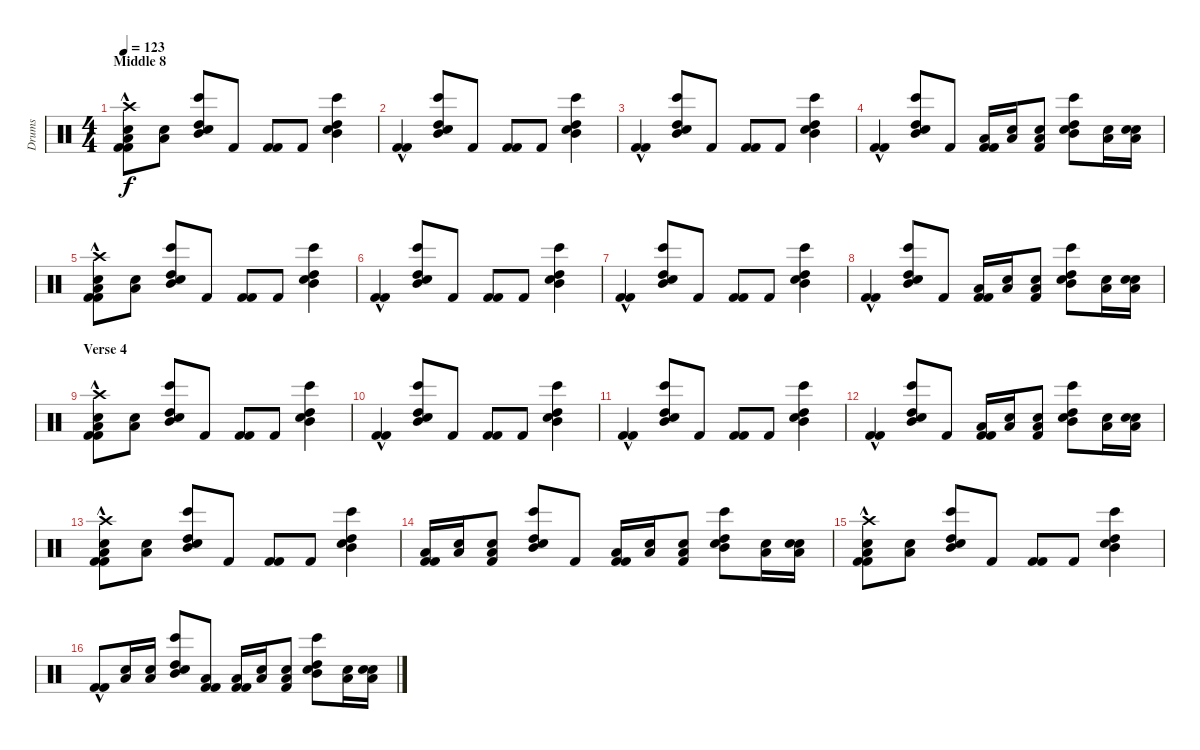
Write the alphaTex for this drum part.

\track ("Drums" "Drums") {instrument percussion}
\staff {score}
\articulation defaults
\ts (4 4)
\section ("" "Middle 8")
\tempo 123
\clef neutral
\ks c
("Crash high (hit)" "Snare (hit) 2" "Low Floor Tom (hit)" "Kick (hit) 2"{hac} "Kick (hit) 2"{hac}).8{dy f} ("Snare (hit) 2" "Low Floor Tom (hit)").8 ("Bongo High (hit)" "High Tom (hit)" "Mid Tom (hit)" "Snare (hit) 2").8 "Kick (hit) 2".8 ("Kick (hit) 2" "Kick (hit) 2").8 "Kick (hit) 2".8 ("Bongo High (hit)" "High Tom (hit)" "Mid Tom (hit)" "Snare (hit) 2").4 |
("Kick (hit) 2"{hac} "Kick (hit) 2"{hac}).4 ("Bongo High (hit)" "High Tom (hit)" "Mid Tom (hit)" "Snare (hit) 2").8 "Kick (hit) 2".8 ("Kick (hit) 2" "Kick (hit) 2").8 "Kick (hit) 2".8 ("Bongo High (hit)" "High Tom (hit)" "Mid Tom (hit)" "Snare (hit) 2").4 |
("Kick (hit) 2"{hac} "Kick (hit) 2"{hac}).4 ("Bongo High (hit)" "High Tom (hit)" "Mid Tom (hit)" "Snare (hit) 2").8 "Kick (hit) 2".8 ("Kick (hit) 2" "Kick (hit) 2").8 "Kick (hit) 2".8 ("Bongo High (hit)" "High Tom (hit)" "Mid Tom (hit)" "Snare (hit) 2").4 |
("Kick (hit) 2"{hac} "Kick (hit) 2"{hac}).4 ("Bongo High (hit)" "High Tom (hit)" "Mid Tom (hit)" "Snare (hit) 2").8 "Kick (hit) 2".8 ("Low Floor Tom (hit)" "Kick (hit) 2" "Kick (hit) 2").16 ("Snare (hit) 2" "Low Floor Tom (hit)").16 ("Snare (hit) 2" "Low Floor Tom (hit)" "Kick (hit) 2").8 ("Bongo High (hit)" "High Tom (hit)" "Mid Tom (hit)" "Snare (hit) 2").8 ("Low Floor Tom (hit)" "Snare (hit) 2").16 ("Snare (hit) 2" "Low Floor Tom (hit)" "Snare (hit) 2").16 |
("Crash high (hit)" "Snare (hit) 2" "Low Floor Tom (hit)" "Kick (hit) 2"{hac} "Kick (hit) 2"{hac}).8 ("Snare (hit) 2" "Low Floor Tom (hit)").8 ("Bongo High (hit)" "High Tom (hit)" "Mid Tom (hit)" "Snare (hit) 2").8 "Kick (hit) 2".8 ("Kick (hit) 2" "Kick (hit) 2").8 "Kick (hit) 2".8 ("Bongo High (hit)" "High Tom (hit)" "Mid Tom (hit)" "Snare (hit) 2").4 |
("Kick (hit) 2"{hac} "Kick (hit) 2"{hac}).4 ("Bongo High (hit)" "High Tom (hit)" "Mid Tom (hit)" "Snare (hit) 2").8 "Kick (hit) 2".8 ("Kick (hit) 2" "Kick (hit) 2").8 "Kick (hit) 2".8 ("Bongo High (hit)" "High Tom (hit)" "Mid Tom (hit)" "Snare (hit) 2").4 |
("Kick (hit) 2"{hac} "Kick (hit) 2"{hac}).4 ("Bongo High (hit)" "High Tom (hit)" "Mid Tom (hit)" "Snare (hit) 2").8 "Kick (hit) 2".8 ("Kick (hit) 2" "Kick (hit) 2").8 "Kick (hit) 2".8 ("Bongo High (hit)" "High Tom (hit)" "Mid Tom (hit)" "Snare (hit) 2").4 |
("Kick (hit) 2"{hac} "Kick (hit) 2"{hac}).4 ("Bongo High (hit)" "High Tom (hit)" "Mid Tom (hit)" "Snare (hit) 2").8 "Kick (hit) 2".8 ("Low Floor Tom (hit)" "Kick (hit) 2" "Kick (hit) 2").16 ("Snare (hit) 2" "Low Floor Tom (hit)").16 ("Snare (hit) 2" "Low Floor Tom (hit)" "Kick (hit) 2").8 ("Bongo High (hit)" "High Tom (hit)" "Mid Tom (hit)" "Snare (hit) 2").8 ("Low Floor Tom (hit)" "Snare (hit) 2").16 ("Snare (hit) 2" "Low Floor Tom (hit)" "Snare (hit) 2").16 |
\section ("" "Verse 4")
("Crash high (hit)" "Snare (hit) 2" "Low Floor Tom (hit)" "Kick (hit) 2"{hac} "Kick (hit) 2"{hac}).8 ("Snare (hit) 2" "Low Floor Tom (hit)").8 ("Bongo High (hit)" "High Tom (hit)" "Mid Tom (hit)" "Snare (hit) 2").8 "Kick (hit) 2".8 ("Kick (hit) 2" "Kick (hit) 2").8 "Kick (hit) 2".8 ("Bongo High (hit)" "High Tom (hit)" "Mid Tom (hit)" "Snare (hit) 2").4 |
("Kick (hit) 2"{hac} "Kick (hit) 2"{hac}).4 ("Bongo High (hit)" "High Tom (hit)" "Mid Tom (hit)" "Snare (hit) 2").8 "Kick (hit) 2".8 ("Kick (hit) 2" "Kick (hit) 2").8 "Kick (hit) 2".8 ("Bongo High (hit)" "High Tom (hit)" "Mid Tom (hit)" "Snare (hit) 2").4 |
("Kick (hit) 2"{hac} "Kick (hit) 2"{hac}).4 ("Bongo High (hit)" "High Tom (hit)" "Mid Tom (hit)" "Snare (hit) 2").8 "Kick (hit) 2".8 ("Kick (hit) 2" "Kick (hit) 2").8 "Kick (hit) 2".8 ("Bongo High (hit)" "High Tom (hit)" "Mid Tom (hit)" "Snare (hit) 2").4 |
("Kick (hit) 2"{hac} "Kick (hit) 2"{hac}).4 ("Bongo High (hit)" "High Tom (hit)" "Mid Tom (hit)" "Snare (hit) 2").8 "Kick (hit) 2".8 ("Low Floor Tom (hit)" "Kick (hit) 2" "Kick (hit) 2").16 ("Snare (hit) 2" "Low Floor Tom (hit)").16 ("Snare (hit) 2" "Low Floor Tom (hit)" "Kick (hit) 2").8 ("Bongo High (hit)" "High Tom (hit)" "Mid Tom (hit)" "Snare (hit) 2").8 ("Low Floor Tom (hit)" "Snare (hit) 2").16 ("Snare (hit) 2" "Low Floor Tom (hit)" "Snare (hit) 2").16 |
("Crash high (hit)" "Snare (hit) 2" "Low Floor Tom (hit)" "Kick (hit) 2"{hac} "Kick (hit) 2"{hac}).8 ("Snare (hit) 2" "Low Floor Tom (hit)").8 ("Bongo High (hit)" "High Tom (hit)" "Mid Tom (hit)" "Snare (hit) 2").8 "Kick (hit) 2".8 ("Kick (hit) 2" "Kick (hit) 2").8 "Kick (hit) 2".8 ("Bongo High (hit)" "High Tom (hit)" "Mid Tom (hit)" "Snare (hit) 2").4 |
("Low Floor Tom (hit)" "Kick (hit) 2" "Kick (hit) 2").16 ("Snare (hit) 2" "Low Floor Tom (hit)").16 ("Snare (hit) 2" "Low Floor Tom (hit)" "Kick (hit) 2").8 ("Bongo High (hit)" "High Tom (hit)" "Mid Tom (hit)" "Snare (hit) 2").8 "Kick (hit) 2".8 ("Low Floor Tom (hit)" "Kick (hit) 2" "Kick (hit) 2").16 ("Snare (hit) 2" "Low Floor Tom (hit)").16 ("Snare (hit) 2" "Low Floor Tom (hit)" "Kick (hit) 2").8 ("Bongo High (hit)" "High Tom (hit)" "Mid Tom (hit)" "Snare (hit) 2").8 ("Low Floor Tom (hit)" "Snare (hit) 2").16 ("Snare (hit) 2" "Low Floor Tom (hit)" "Snare (hit) 2").16 |
("Crash high (hit)" "Snare (hit) 2" "Low Floor Tom (hit)" "Kick (hit) 2"{hac} "Kick (hit) 2"{hac}).8 ("Snare (hit) 2" "Low Floor Tom (hit)").8 ("Bongo High (hit)" "High Tom (hit)" "Mid Tom (hit)" "Snare (hit) 2").8 "Kick (hit) 2".8 ("Kick (hit) 2" "Kick (hit) 2").8 "Kick (hit) 2".8 ("Bongo High (hit)" "High Tom (hit)" "Mid Tom (hit)" "Snare (hit) 2").4 |
("Kick (hit) 2"{hac} "Kick (hit) 2"{hac}).8 ("Snare (hit) 2" "Low Floor Tom (hit)").16 ("Snare (hit) 2" "Low Floor Tom (hit)").16 ("Bongo High (hit)" "High Tom (hit)" "Mid Tom (hit)" "Snare (hit) 2").8 ("Low Floor Tom (hit)" "Kick (hit) 2" "Kick (hit) 2").8 ("Low Floor Tom (hit)" "Kick (hit) 2" "Kick (hit) 2").16 ("Snare (hit) 2" "Low Floor Tom (hit)").16 ("Snare (hit) 2" "Low Floor Tom (hit)" "Kick (hit) 2").8 ("Bongo High (hit)" "High Tom (hit)" "Mid Tom (hit)" "Snare (hit) 2").8 ("Low Floor Tom (hit)" "Snare (hit) 2").16 ("Snare (hit) 2" "Low Floor Tom (hit)" "Snare (hit) 2").16
